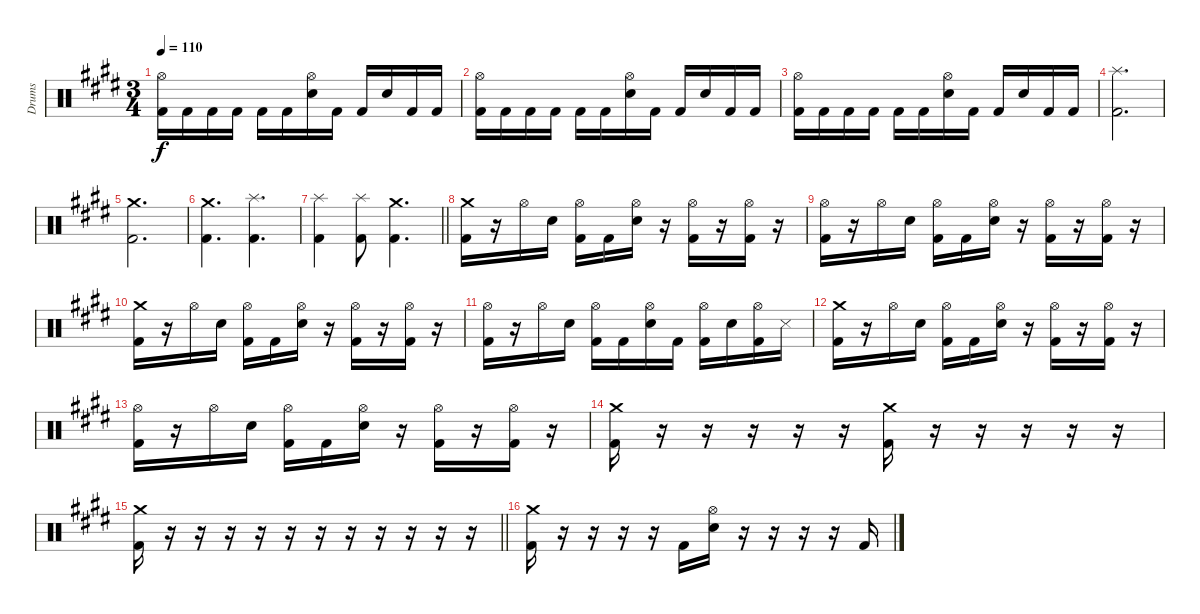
\track ("Drums" "Drums") {instrument percussion}
\staff {score}
\articulation defaults
\ts (3 4)
\tempo 110
\clef neutral
\ks c#minor
("Kick (hit) 2" "Hi-Hat (open)").16{dy f} "Kick (hit) 2".16 "Kick (hit) 2".16 "Kick (hit) 2".16 "Kick (hit) 2".16 "Kick (hit) 2".16 ("Electric Snare (hit)" "Hi-Hat (open)").16 "Kick (hit) 2".16 "Kick (hit) 2".16 "Electric Snare (hit)".16 "Kick (hit) 2".16 "Kick (hit) 2".16 |
("Kick (hit) 2" "Hi-Hat (open)").16 "Kick (hit) 2".16 "Kick (hit) 2".16 "Kick (hit) 2".16 "Kick (hit) 2".16 "Kick (hit) 2".16 ("Electric Snare (hit)" "Hi-Hat (open)").16 "Kick (hit) 2".16 "Kick (hit) 2".16 "Electric Snare (hit)".16 "Kick (hit) 2".16 "Kick (hit) 2".16 |
("Kick (hit) 2" "Hi-Hat (open)").16 "Kick (hit) 2".16 "Kick (hit) 2".16 "Kick (hit) 2".16 "Kick (hit) 2".16 "Kick (hit) 2".16 ("Electric Snare (hit)" "Hi-Hat (open)").16 "Kick (hit) 2".16 "Kick (hit) 2".16 "Electric Snare (hit)".16 "Kick (hit) 2".16 "Kick (hit) 2".16 |
("Kick (hit) 2" "Splash (hit)").2{d} |
("Kick (hit) 2" "Crash medium (hit)").2{d} |
("Kick (hit) 2" "Crash medium (hit)").4{d} ("Kick (hit) 2" "Splash (hit)").4{d} |
\barLineRight lightlight
("Kick (hit) 2" "Splash (hit)").4 ("Kick (hit) 2" "Splash (hit)").8 ("Kick (hit) 2" "Crash medium (hit)").4{d} |
("Kick (hit) 2" "Crash medium (hit)").16 r.16 "Hi-Hat (open)".16 "Electric Snare (hit)".16 ("Kick (hit) 2" "Hi-Hat (open)").16 "Kick (hit) 2".16 ("Electric Snare (hit)" "Hi-Hat (open)").16 r.16 ("Kick (hit) 2" "Hi-Hat (open)").16 r.16 ("Kick (hit) 2" "Hi-Hat (open)").16 r.16 |
("Kick (hit) 2" "Hi-Hat (open)").16 r.16 "Hi-Hat (open)".16 "Electric Snare (hit)".16 ("Kick (hit) 2" "Hi-Hat (open)").16 "Kick (hit) 2".16 ("Electric Snare (hit)" "Hi-Hat (open)").16 r.16 ("Kick (hit) 2" "Hi-Hat (open)").16 r.16 ("Kick (hit) 2" "Hi-Hat (open)").16 r.16 |
("Kick (hit) 2" "Crash medium (hit)").16 r.16 "Hi-Hat (open)".16 "Electric Snare (hit)".16 ("Kick (hit) 2" "Hi-Hat (open)").16 "Kick (hit) 2".16 ("Electric Snare (hit)" "Hi-Hat (open)").16 r.16 ("Kick (hit) 2" "Hi-Hat (open)").16 r.16 ("Kick (hit) 2" "Hi-Hat (open)").16 r.16 |
("Kick (hit) 2" "Hi-Hat (open)").16 r.16 "Hi-Hat (open)".16 "Electric Snare (hit)".16 ("Kick (hit) 2" "Hi-Hat (open)").16 "Kick (hit) 2".16 ("Electric Snare (hit)" "Hi-Hat (open)").16 "Kick (hit) 2".16 ("Kick (hit) 2" "Hi-Hat (open)").16 "Electric Snare (hit)".16 ("Kick (hit) 2" "Hi-Hat (open)").16 "Metronome (hit)".16 |
("Kick (hit) 2" "Crash medium (hit)").16 r.16 "Hi-Hat (open)".16 "Electric Snare (hit)".16 ("Kick (hit) 2" "Hi-Hat (open)").16 "Kick (hit) 2".16 ("Electric Snare (hit)" "Hi-Hat (open)").16 r.16 ("Kick (hit) 2" "Hi-Hat (open)").16 r.16 ("Kick (hit) 2" "Hi-Hat (open)").16 r.16 |
("Kick (hit) 2" "Hi-Hat (open)").16 r.16 "Hi-Hat (open)".16 "Electric Snare (hit)".16 ("Kick (hit) 2" "Hi-Hat (open)").16 "Kick (hit) 2".16 ("Electric Snare (hit)" "Hi-Hat (open)").16 r.16 ("Kick (hit) 2" "Hi-Hat (open)").16 r.16 ("Kick (hit) 2" "Hi-Hat (open)").16 r.16 |
("Kick (hit) 2" "Crash medium (hit)").16 r.16 r.16 r.16 r.16 r.16 ("Kick (hit) 2" "Crash medium (hit)").16 r.16 r.16 r.16 r.16 r.16 |
\barLineRight lightlight
("Kick (hit) 2" "Crash medium (hit)").16 r.16 r.16 r.16 r.16 r.16 r.16 r.16 r.16 r.16 r.16 r.16 |
("Kick (hit) 2" "Crash medium (hit)").16 r.16 r.16 r.16 r.16 "Kick (hit) 2".16 ("Electric Snare (hit)" "Hi-Hat (open)").16 r.16 r.16 r.16 r.16 "Kick (hit) 2".16
